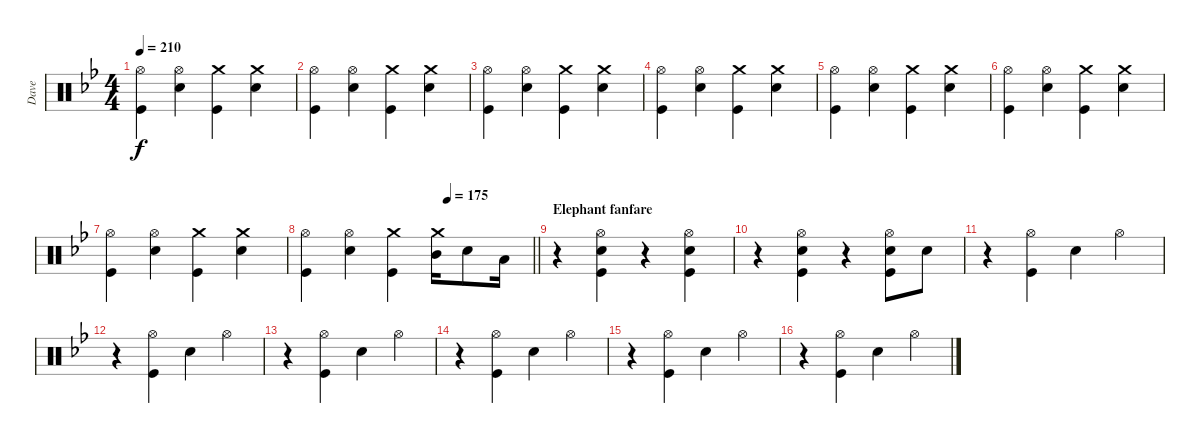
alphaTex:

\track ("Dave" "Dave") {instrument percussion}
\staff {score}
\articulation defaults
\ts (4 4)
\tempo 210
\clef neutral
\ks gminor
("Hi-Hat (open)" "Kick (hit)").4{dy f} ("Hi-Hat (open)" "Snare (hit) 2").4 ("Crash medium (hit)" "Kick (hit)").4 ("Crash medium (hit)" "Snare (hit) 2").4 |
("Hi-Hat (open)" "Kick (hit)").4 ("Hi-Hat (open)" "Snare (hit) 2").4 ("Crash medium (hit)" "Kick (hit)").4 ("Crash medium (hit)" "Snare (hit) 2").4 |
("Hi-Hat (open)" "Kick (hit)").4 ("Hi-Hat (open)" "Snare (hit) 2").4 ("Crash medium (hit)" "Kick (hit)").4 ("Crash medium (hit)" "Snare (hit) 2").4 |
("Hi-Hat (open)" "Kick (hit)").4 ("Hi-Hat (open)" "Snare (hit) 2").4 ("Crash medium (hit)" "Kick (hit)").4 ("Crash medium (hit)" "Snare (hit) 2").4 |
("Hi-Hat (open)" "Kick (hit)").4 ("Hi-Hat (open)" "Snare (hit) 2").4 ("Crash medium (hit)" "Kick (hit)").4 ("Crash medium (hit)" "Snare (hit) 2").4 |
("Hi-Hat (open)" "Kick (hit)").4 ("Hi-Hat (open)" "Snare (hit) 2").4 ("Crash medium (hit)" "Kick (hit)").4 ("Crash medium (hit)" "Snare (hit) 2").4 |
("Hi-Hat (open)" "Kick (hit)").4 ("Hi-Hat (open)" "Snare (hit) 2").4 ("Crash medium (hit)" "Kick (hit)").4 ("Crash medium (hit)" "Snare (hit) 2").4 |
\tempo (175 0.625)
\barLineRight lightlight
("Hi-Hat (open)" "Kick (hit)").4 ("Hi-Hat (open)" "Snare (hit) 2").4 ("Crash medium (hit)" "Kick (hit)").4 ("Crash medium (hit)" "Mid Tom (hit)").16 "Snare (hit) 2".8 "Low Tom (hit)".16 |
\section ("" "Elephant fanfare")
r.4 ("Hi-Hat (open)" "Snare (hit) 2" "Kick (hit)").4 r.4 ("Hi-Hat (open)" "Snare (hit) 2" "Kick (hit)").4 |
r.4 ("Hi-Hat (open)" "Snare (hit) 2" "Kick (hit)").4 r.4 ("Hi-Hat (open)" "Snare (hit) 2" "Kick (hit)").8 "Snare (hit) 2".8 |
r.4 ("Hi-Hat (open)" "Kick (hit)").4 "Snare (hit) 2".4 "Hi-Hat (open)".4 |
r.4 ("Hi-Hat (open)" "Kick (hit)").4 "Snare (hit) 2".4 "Hi-Hat (open)".4 |
r.4 ("Hi-Hat (open)" "Kick (hit)").4 "Snare (hit) 2".4 "Hi-Hat (open)".4 |
r.4 ("Hi-Hat (open)" "Kick (hit)").4 "Snare (hit) 2".4 "Hi-Hat (open)".4 |
r.4 ("Hi-Hat (open)" "Kick (hit)").4 "Snare (hit) 2".4 "Hi-Hat (open)".4 |
r.4 ("Hi-Hat (open)" "Kick (hit)").4 "Snare (hit) 2".4 "Hi-Hat (open)".4
